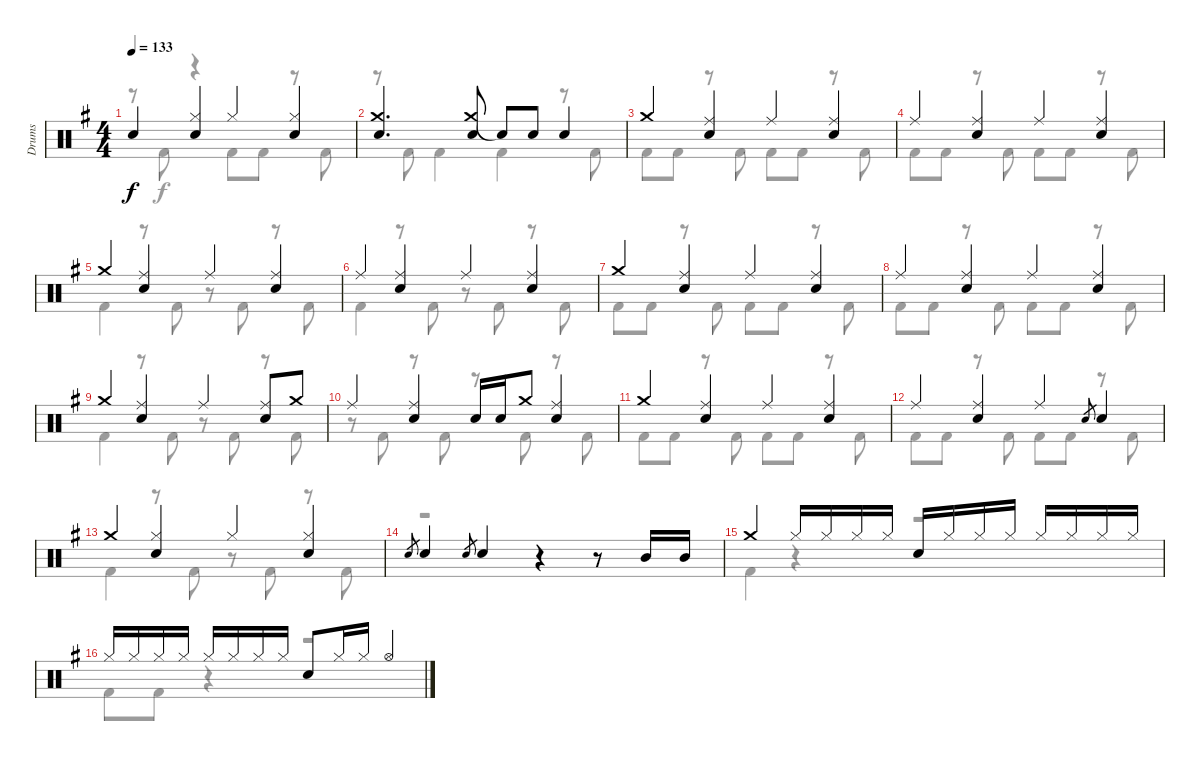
\track ("Drums" "Drums") {instrument percussion}
\staff {score}
\articulation defaults
\voice
\ts (4 4)
\tempo 133
\clef neutral
\ks g "Snare (hit)"{t}.4{dy f}
("Hi-Hat (closed)" "Snare (hit) 2").4 "Hi-Hat (closed)".4 ("Hi-Hat (closed)" "Snare (hit) 2").4 |
("Crash medium (hit)" "Snare (hit) 2").4{d} ("Crash medium (hit)" "Snare (hit) 2").8 "Snare (hit)"{t}.8 "Snare (hit) 2".8 "Snare (hit) 2".4 |
"Crash medium (hit)".4 ("Ride (middle)" "Snare (hit) 2").4 "Ride (middle)".4 ("Ride (middle)" "Snare (hit) 2").4 |
"Ride (middle)".4 ("Ride (middle)" "Snare (hit) 2").4 "Ride (middle)".4 ("Ride (middle)" "Snare (hit) 2").4 |
"Crash medium (hit)".4 ("Ride (middle)" "Snare (hit) 2").4 "Ride (middle)".4 ("Ride (middle)" "Snare (hit) 2").4 |
"Ride (middle)".4 ("Ride (middle)" "Snare (hit) 2").4 "Ride (middle)".4 ("Ride (middle)" "Snare (hit) 2").4 |
"Crash medium (hit)".4 ("Ride (middle)" "Snare (hit) 2").4 "Ride (middle)".4 ("Ride (middle)" "Snare (hit) 2").4 |
"Ride (middle)".4 ("Ride (middle)" "Snare (hit) 2").4 "Ride (middle)".4 ("Ride (middle)" "Snare (hit) 2").4 |
"Crash medium (hit)".4 ("Ride (middle)" "Snare (hit) 2").4 "Ride (middle)".4 ("Ride (middle)" "Snare (hit) 2").8 "Crash medium (hit)".8 |
"Ride (middle)".4 ("Ride (middle)" "Snare (hit) 2").4 "Snare (hit) 2".16 "Snare (hit) 2".16 "Crash medium (hit)".8 ("Ride (middle)" "Snare (hit) 2").4 |
"Crash medium (hit)".4 ("Ride (middle)" "Snare (hit) 2").4 "Ride (middle)".4 ("Ride (middle)" "Snare (hit) 2").4 |
"Ride (middle)".4 ("Ride (middle)" "Snare (hit) 2").4 "Ride (middle)".4 "Snare (hit) 2".8{gr} "Snare (hit) 2".4 |
"Crash medium (hit)".4 ("Hi-Hat (closed)" "Snare (hit) 2").4 "Hi-Hat (closed)".4 ("Hi-Hat (closed)" "Snare (hit) 2").4 |
"Snare (hit) 2".8{gr} "Snare (hit) 2".4 "Snare (hit) 2".8{gr} "Snare (hit) 2".4 r.4 r.8 "Mid Tom (hit)".16 "Mid Tom (hit)".16 |
"Crash medium (hit)".4 "Hi-Hat (closed)".16 "Hi-Hat (closed)".16 "Hi-Hat (closed)".16 "Hi-Hat (closed)".16 "Snare (hit) 2".16 "Hi-Hat (closed)".16 "Hi-Hat (closed)".16 "Hi-Hat (closed)".16 "Hi-Hat (closed)".16 "Hi-Hat (closed)".16 "Hi-Hat (closed)".16 "Hi-Hat (closed)".16 |
"Hi-Hat (closed)".16 "Hi-Hat (closed)".16 "Hi-Hat (closed)".16 "Hi-Hat (closed)".16 "Hi-Hat (closed)".16 "Hi-Hat (closed)".16 "Hi-Hat (closed)".16 "Hi-Hat (closed)".16 "Snare (hit) 2".8 "Hi-Hat (closed)".16 "Hi-Hat (closed)".16 "Hi-Hat (open)".4
\voice
\clef neutral
\ottava regular
\simile none
\ks g
r.8{dy f} "Kick (hit) 2".8 r.4 "Kick (hit) 2".8 "Kick (hit) 2".8 r.8 "Kick (hit) 2".8 |
r.8 "Kick (hit) 2".8 "Kick (hit) 2".4 "Kick (hit) 2".4 r.8 "Kick (hit) 2".8 |
"Kick (hit) 2".8 "Kick (hit) 2".8 r.8 "Kick (hit) 2".8 "Kick (hit) 2".8 "Kick (hit) 2".8 r.8 "Kick (hit) 2".8 |
"Kick (hit) 2".8 "Kick (hit) 2".8 r.8 "Kick (hit) 2".8 "Kick (hit) 2".8 "Kick (hit) 2".8 r.8 "Kick (hit) 2".8 |
"Kick (hit) 2".4 r.8 "Kick (hit) 2".8 r.8 "Kick (hit) 2".8 r.8 "Kick (hit) 2".8 |
"Kick (hit) 2".4 r.8 "Kick (hit) 2".8 r.8 "Kick (hit) 2".8 r.8 "Kick (hit) 2".8 |
"Kick (hit) 2".8 "Kick (hit) 2".8 r.8 "Kick (hit) 2".8 "Kick (hit) 2".8 "Kick (hit) 2".8 r.8 "Kick (hit) 2".8 |
"Kick (hit) 2".8 "Kick (hit) 2".8 r.8 "Kick (hit) 2".8 "Kick (hit) 2".8 "Kick (hit) 2".8 r.8 "Kick (hit) 2".8 |
"Kick (hit) 2".4 r.8 "Kick (hit) 2".8 r.8 "Kick (hit) 2".8 r.8 "Kick (hit) 2".8 |
r.8 "Kick (hit) 2".8 r.8 "Kick (hit) 2".8 r.8 "Kick (hit) 2".8 r.8 "Kick (hit) 2".8 |
"Kick (hit) 2".8 "Kick (hit) 2".8 r.8 "Kick (hit) 2".8 "Kick (hit) 2".8 "Kick (hit) 2".8 r.8 "Kick (hit) 2".8 |
"Kick (hit) 2".8 "Kick (hit) 2".8 r.8 "Kick (hit) 2".8 "Kick (hit) 2".8 "Kick (hit) 2".8 r.8 "Kick (hit) 2".8 |
"Kick (hit) 2".4 r.8 "Kick (hit) 2".8 r.8 "Kick (hit) 2".8 r.8 "Kick (hit) 2".8 |
r.1 |
"Kick (hit) 2".4 r.4 r.2 |
"Kick (hit) 2".8 "Kick (hit) 2".8 r.4 r.2
